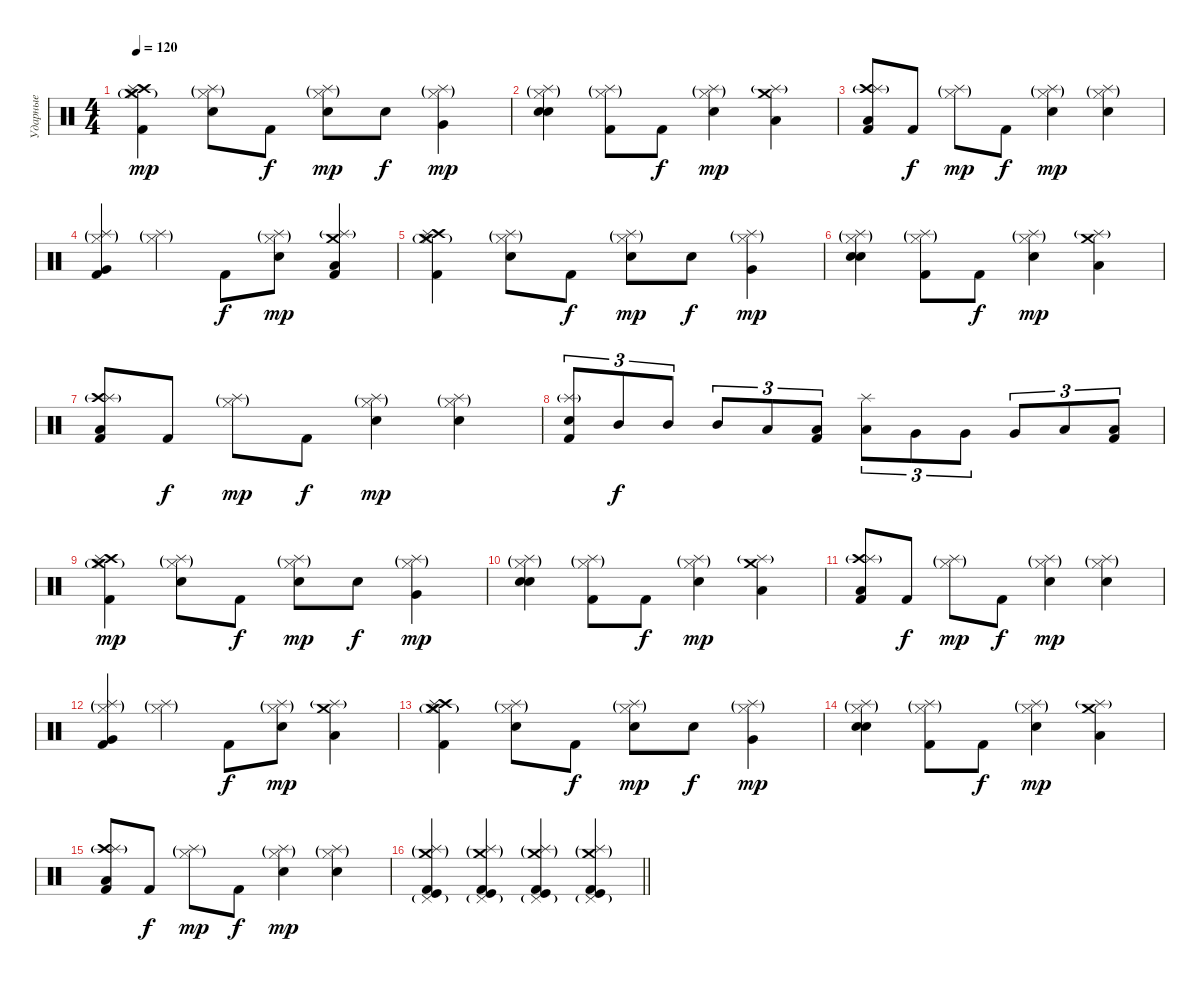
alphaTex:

\track ("Ударные" "Ударные") {instrument percussion bank 2}
\staff {score}
\articulation defaults
\ts (4 4)
\tempo 120
\clef neutral
\ks c
("Kick (hit) 2" "Hi-Hat (closed)"{g} "Crash high (hit)" "Splash (hit)" "Crash medium (hit)").4{dy mp} ("Snare (hit)" "Hi-Hat (closed)"{g} "Splash (hit)"{g}).8 "Kick (hit) 2".8{dy f} ("Snare (hit) 2" "Hi-Hat (closed)"{g} "Splash (hit)"{g}).8{dy mp} "Snare (hit)".8{dy f} ("Hi-Hat (closed)"{g} "Very Low Tom (hit)" "Splash (hit)"{g}).4{dy mp} |
("Snare (hit)" "Hi-Hat (closed)"{g} "Snare (hit)" "Splash (hit)"{g}).4 ("Kick (hit) 2" "Hi-Hat (closed)"{g} "Splash (hit)"{g}).8 "Kick (hit) 2".8{dy f} ("Snare (hit) 2" "Hi-Hat (closed)"{g} "Splash (hit)"{g}).4{dy mp} ("Low Tom (hit)" "Crash medium (hit)" "Splash (hit)"{g}).4 |
("Kick (hit) 2" "Low Floor Tom (hit)" "Crash high (hit)" "Splash (hit)"{g}).8 "Kick (hit) 2".8{dy f} ("Hi-Hat (closed)"{g} "Splash (hit)"{g}).8{dy mp} "Kick (hit) 2".8{dy f} ("Snare (hit) 2" "Hi-Hat (closed)"{g} "Splash (hit)"{g}).4{dy mp} ("Hi-Hat (closed)"{g} "Snare (hit)" "Splash (hit)"{g}).4 |
("Kick (hit) 2" "Hi-Hat (closed)"{g} "Very Low Tom (hit)" "Splash (hit)"{g}).4 ("Hi-Hat (closed)"{g} "Splash (hit)"{g}).4 "Kick (hit) 2".8{dy f} ("Snare (hit) 2" "Hi-Hat (closed)"{g} "Splash (hit)"{g}).8{dy mp} ("Kick (hit) 2" "Low Tom (hit)" "Crash medium (hit)" "Splash (hit)"{g}).4 |
("Kick (hit) 2" "Hi-Hat (closed)"{g} "Crash high (hit)" "Splash (hit)" "Crash medium (hit)").4 ("Snare (hit)" "Hi-Hat (closed)"{g} "Splash (hit)"{g}).8 "Kick (hit) 2".8{dy f} ("Snare (hit) 2" "Hi-Hat (closed)"{g} "Splash (hit)"{g}).8{dy mp} "Snare (hit)".8{dy f} ("Hi-Hat (closed)"{g} "Very Low Tom (hit)" "Splash (hit)"{g}).4{dy mp} |
("Snare (hit)" "Hi-Hat (closed)"{g} "Snare (hit)" "Splash (hit)"{g}).4 ("Kick (hit) 2" "Hi-Hat (closed)"{g} "Splash (hit)"{g}).8 "Kick (hit) 2".8{dy f} ("Snare (hit) 2" "Hi-Hat (closed)"{g} "Splash (hit)"{g}).4{dy mp} ("Low Tom (hit)" "Crash medium (hit)" "Splash (hit)"{g}).4 |
("Kick (hit) 2" "Low Floor Tom (hit)" "Crash high (hit)" "Splash (hit)"{g}).8 "Kick (hit) 2".8{dy f} ("Hi-Hat (closed)"{g} "Splash (hit)"{g}).8{dy mp} "Kick (hit) 2".8{dy f} ("Snare (hit) 2" "Hi-Hat (closed)"{g} "Splash (hit)"{g}).4{dy mp} ("Hi-Hat (closed)"{g} "Snare (hit)" "Splash (hit)"{g}).4 |
("Snare (hit) 2" "Kick (hit) 2" "Splash (hit)"{g}).8{tu (3 2)} "Mid Tom (hit)".8{tu (3 2) dy f} "Mid Tom (hit)".8{tu (3 2)} "Mid Tom (hit)".8{tu (3 2)} "Low Tom (hit)".8{tu (3 2)} ("Kick (hit) 2" "Low Tom (hit)").8{tu (3 2)} ("Low Tom (hit)" "Splash (hit)").8{tu (3 2)} "Very Low Tom (hit)".8{tu (3 2)} "Very Low Tom (hit)".8{tu (3 2)} "Very Low Tom (hit)".8{tu (3 2)} "Low Tom (hit)".8{tu (3 2)} ("Kick (hit) 2" "Low Tom (hit)").8{tu (3 2)} |
("Kick (hit) 2" "Hi-Hat (closed)"{g} "Crash high (hit)" "Splash (hit)" "Crash medium (hit)").4{dy mp} ("Snare (hit)" "Hi-Hat (closed)"{g} "Splash (hit)"{g}).8 "Kick (hit) 2".8{dy f} ("Snare (hit) 2" "Hi-Hat (closed)"{g} "Splash (hit)"{g}).8{dy mp} "Snare (hit)".8{dy f} ("Hi-Hat (closed)"{g} "Very Low Tom (hit)" "Splash (hit)"{g}).4{dy mp} |
("Snare (hit)" "Hi-Hat (closed)"{g} "Snare (hit)" "Splash (hit)"{g}).4 ("Kick (hit) 2" "Hi-Hat (closed)"{g} "Splash (hit)"{g}).8 "Kick (hit) 2".8{dy f} ("Snare (hit) 2" "Hi-Hat (closed)"{g} "Splash (hit)"{g}).4{dy mp} ("Low Tom (hit)" "Crash medium (hit)" "Splash (hit)"{g}).4 |
("Kick (hit) 2" "Low Floor Tom (hit)" "Crash high (hit)" "Splash (hit)"{g}).8 "Kick (hit) 2".8{dy f} ("Hi-Hat (closed)"{g} "Splash (hit)"{g}).8{dy mp} "Kick (hit) 2".8{dy f} ("Snare (hit) 2" "Hi-Hat (closed)"{g} "Splash (hit)"{g}).4{dy mp} ("Hi-Hat (closed)"{g} "Snare (hit)" "Splash (hit)"{g}).4 |
("Kick (hit) 2" "Hi-Hat (closed)"{g} "Very Low Tom (hit)" "Splash (hit)"{g}).4 ("Hi-Hat (closed)"{g} "Splash (hit)"{g}).4 "Kick (hit) 2".8{dy f} ("Snare (hit) 2" "Hi-Hat (closed)"{g} "Splash (hit)"{g}).8{dy mp} ("Low Tom (hit)" "Crash medium (hit)" "Splash (hit)"{g}).4 |
("Kick (hit) 2" "Hi-Hat (closed)"{g} "Crash high (hit)" "Splash (hit)" "Crash medium (hit)").4 ("Snare (hit)" "Hi-Hat (closed)"{g} "Splash (hit)"{g}).8 "Kick (hit) 2".8{dy f} ("Snare (hit) 2" "Hi-Hat (closed)"{g} "Splash (hit)"{g}).8{dy mp} "Snare (hit)".8{dy f} ("Hi-Hat (closed)"{g} "Very Low Tom (hit)" "Splash (hit)"{g}).4{dy mp} |
("Snare (hit)" "Hi-Hat (closed)"{g} "Snare (hit)" "Splash (hit)"{g}).4 ("Kick (hit) 2" "Hi-Hat (closed)"{g} "Splash (hit)"{g}).8 "Kick (hit) 2".8{dy f} ("Snare (hit) 2" "Hi-Hat (closed)"{g} "Splash (hit)"{g}).4{dy mp} ("Low Tom (hit)" "Crash medium (hit)" "Splash (hit)"{g}).4 |
("Kick (hit) 2" "Low Floor Tom (hit)" "Crash high (hit)" "Splash (hit)"{g}).8 "Kick (hit) 2".8{dy f} ("Hi-Hat (closed)"{g} "Splash (hit)"{g}).8{dy mp} "Kick (hit) 2".8{dy f} ("Snare (hit) 2" "Hi-Hat (closed)"{g} "Splash (hit)"{g}).4{dy mp} ("Hi-Hat (closed)"{g} "Snare (hit)" "Splash (hit)"{g}).4 |
\barLineRight lightlight
("Kick (hit) 2" "Pedal Hi-Hat (hit)"{g} "Splash (hit)"{g} "Crash medium (hit)"{g} "Kick (hit)").4 ("Kick (hit) 2" "Pedal Hi-Hat (hit)"{g} "Splash (hit)"{g} "Crash medium (hit)"{g} "Kick (hit)").4 ("Kick (hit) 2" "Pedal Hi-Hat (hit)"{g} "Splash (hit)"{g} "Crash medium (hit)"{g} "Kick (hit)").4 ("Kick (hit) 2" "Pedal Hi-Hat (hit)"{g} "Splash (hit)"{g} "Crash medium (hit)"{g} "Kick (hit)").4
